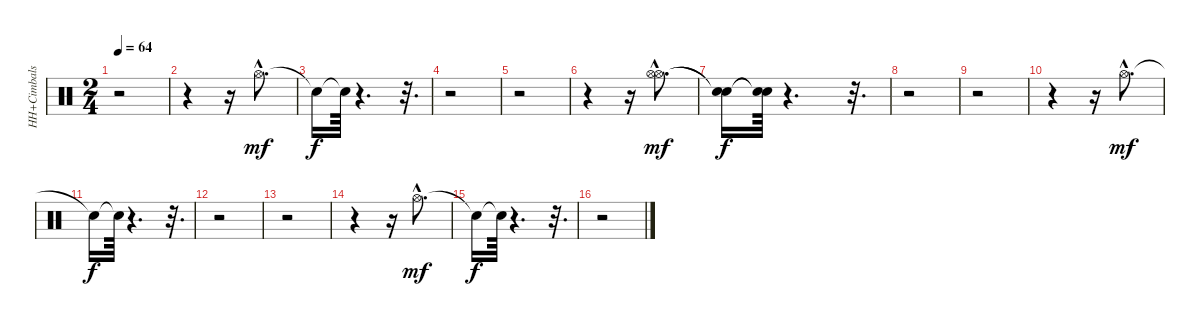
\track ("HH+Cimbals" "HH+Cimbals") {instrument percussion}
\staff {score}
\articulation defaults
\ts (2 4)
\tempo 64
\clef neutral
\ks c
r.2{dy f} |
r.4 r.16 "Hi-Hat (open)"{hac}.8{d dy mf} |
"Snare (hit)"{t}.16{dy f} "Snare (hit)"{t}.64 r.4{d} r.32{d} |
r.2 |
r.2 |
r.4 r.16 ("Hi-Hat (open)"{hac} "Hi-Hat (open)"{hac}).8{d dy mf} |
("Snare (hit)"{t} "Snare (hit)"{t}).16{dy f} ("Snare (hit)"{t} "Snare (hit)"{t}).64 r.4{d} r.32{d} |
r.2 |
r.2 |
r.4 r.16 "Hi-Hat (open)"{hac}.8{d dy mf} |
"Snare (hit)"{t}.16{dy f} "Snare (hit)"{t}.64 r.4{d} r.32{d} |
r.2 |
r.2 |
r.4 r.16 "Hi-Hat (open)"{hac}.8{d dy mf} |
"Snare (hit)"{t}.16{dy f} "Snare (hit)"{t}.64 r.4{d} r.32{d} |
r.2
